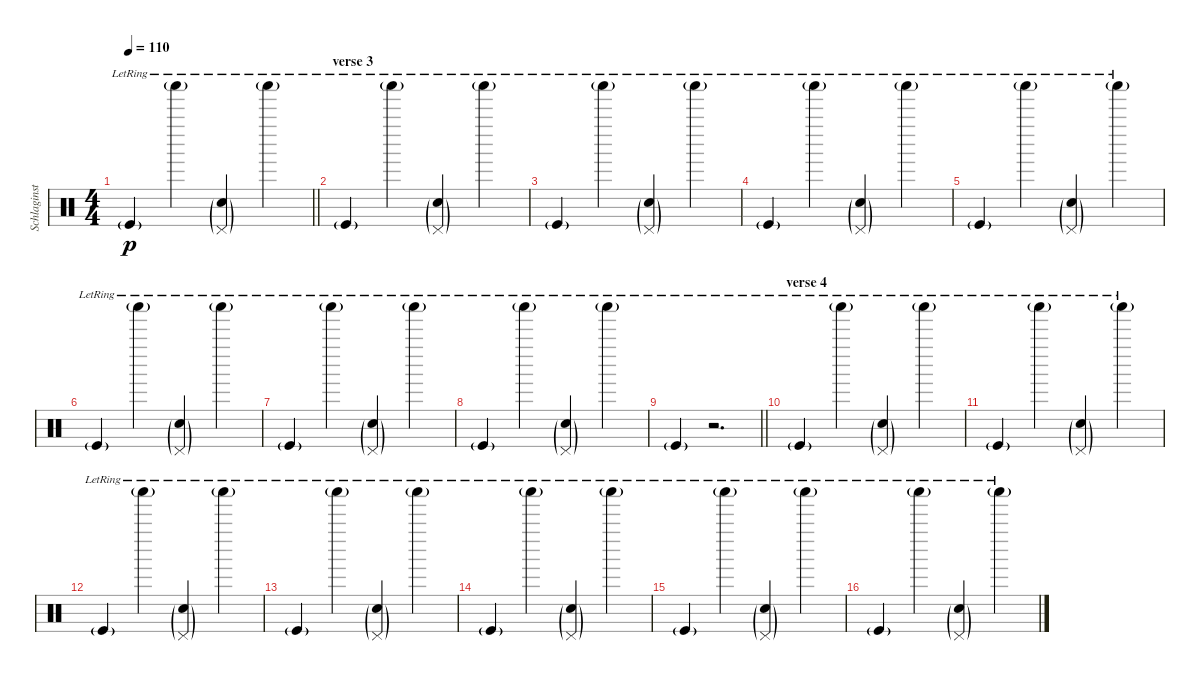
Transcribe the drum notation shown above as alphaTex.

\track ("Schlaginstrumente - Auswahl" "Schlaginst") {instrument percussion}
\staff {score}
\articulation defaults
\ts (4 4)
\tempo 110
\clef neutral
\barLineRight lightlight
\ks c "Kick (hit)"{g lr}.4{dy p} "Shaker (hit)"{g lr}.4
("Snare (hit) 2"{g lr} "Pedal Hi-Hat (hit)"{g lr}).4 "Shaker (hit)"{g lr}.4 |
\section ("" "verse 3")
"Kick (hit)"{g lr}.4 "Shaker (hit)"{g lr}.4 ("Snare (hit) 2"{g lr} "Pedal Hi-Hat (hit)"{g lr}).4 "Shaker (hit)"{g lr}.4 |
"Kick (hit)"{g lr}.4 "Shaker (hit)"{g lr}.4 ("Snare (hit) 2"{g lr} "Pedal Hi-Hat (hit)"{g lr}).4 "Shaker (hit)"{g lr}.4 |
"Kick (hit)"{g lr}.4 "Shaker (hit)"{g lr}.4 ("Snare (hit) 2"{g lr} "Pedal Hi-Hat (hit)"{g lr}).4 "Shaker (hit)"{g lr}.4 |
"Kick (hit)"{g lr}.4 "Shaker (hit)"{g lr}.4 ("Snare (hit) 2"{g lr} "Pedal Hi-Hat (hit)"{g lr}).4 "Shaker (hit)"{g lr}.4 |
"Kick (hit)"{g lr}.4 "Shaker (hit)"{g lr}.4 ("Snare (hit) 2"{g lr} "Pedal Hi-Hat (hit)"{g lr}).4 "Shaker (hit)"{g lr}.4 |
"Kick (hit)"{g lr}.4 "Shaker (hit)"{g lr}.4 ("Snare (hit) 2"{g lr} "Pedal Hi-Hat (hit)"{g lr}).4 "Shaker (hit)"{g lr}.4 |
"Kick (hit)"{g lr}.4 "Shaker (hit)"{g lr}.4 ("Snare (hit) 2"{g lr} "Pedal Hi-Hat (hit)"{g lr}).4 "Shaker (hit)"{g lr}.4 |
\barLineRight lightlight "Kick (hit)"{g lr}.4
r.2{d} |
\section ("" "verse 4")
"Kick (hit)"{g lr}.4 "Shaker (hit)"{g lr}.4 ("Snare (hit) 2"{g lr} "Pedal Hi-Hat (hit)"{g lr}).4 "Shaker (hit)"{g lr}.4 |
"Kick (hit)"{g lr}.4 "Shaker (hit)"{g lr}.4 ("Snare (hit) 2"{g lr} "Pedal Hi-Hat (hit)"{g lr}).4 "Shaker (hit)"{g lr}.4 |
"Kick (hit)"{g lr}.4 "Shaker (hit)"{g lr}.4 ("Snare (hit) 2"{g lr} "Pedal Hi-Hat (hit)"{g lr}).4 "Shaker (hit)"{g lr}.4 |
"Kick (hit)"{g lr}.4 "Shaker (hit)"{g lr}.4 ("Snare (hit) 2"{g lr} "Pedal Hi-Hat (hit)"{g lr}).4 "Shaker (hit)"{g lr}.4 |
"Kick (hit)"{g lr}.4 "Shaker (hit)"{g lr}.4 ("Snare (hit) 2"{g lr} "Pedal Hi-Hat (hit)"{g lr}).4 "Shaker (hit)"{g lr}.4 |
"Kick (hit)"{g lr}.4 "Shaker (hit)"{g lr}.4 ("Snare (hit) 2"{g lr} "Pedal Hi-Hat (hit)"{g lr}).4 "Shaker (hit)"{g lr}.4 |
"Kick (hit)"{g lr}.4 "Shaker (hit)"{g lr}.4 ("Snare (hit) 2"{g lr} "Pedal Hi-Hat (hit)"{g lr}).4 "Shaker (hit)"{g lr}.4
